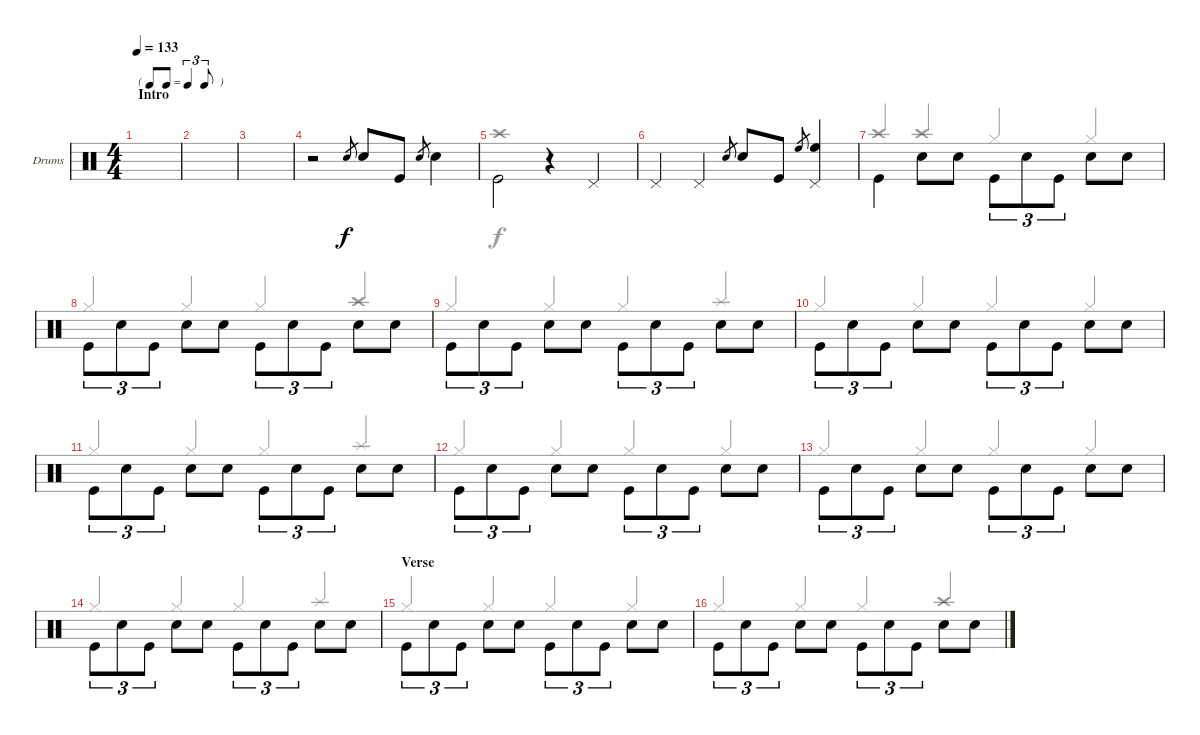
\defaultSystemsLayout 4
\bracketExtendMode groupsimilarinstruments
\firstSystemTrackNameOrientation horizontal
\otherSystemsTrackNameOrientation horizontal
\track ("PETER CRISS" "Drums") {solo instrument percussion}
\staff {score}
\articulation defaults
\voice
\ts (4 4)
\tf triplet8th
\section ("" "Intro")
\tempo 133
\clef neutral
\ks c
|
|
|
r.2 "Snare (hit) 2".8{gr} "Snare (hit) 2".8 "Kick (hit)".8 "Snare (hit) 2".8{gr} "Snare (hit) 2".4 |
"Kick (hit)".2{beam invert} r.4 "Pedal Hi-Hat (hit)".4 |
"Pedal Hi-Hat (hit)".4 "Pedal Hi-Hat (hit)".4 "Snare (hit) 2".8{gr} "Snare (hit) 2".8 "Kick (hit)".8 "High Floor Tom (hit)".8{gr} ("High Floor Tom (hit)" "Pedal Hi-Hat (hit)").4 |
"Kick (hit)".4{beam invert} "Snare (hit) 2".8{beam invert} "Snare (hit) 2".8 "Kick (hit)".8{tu (3 2) beam invert} "Snare (hit) 2".8{tu (3 2)} "Kick (hit)".8{tu (3 2)} "Snare (hit) 2".8{beam invert} "Snare (hit) 2".8 |
"Kick (hit)".8{tu (3 2) beam invert} "Snare (hit) 2".8{tu (3 2)} "Kick (hit)".8{tu (3 2)} "Snare (hit) 2".8{beam invert} "Snare (hit) 2".8 "Kick (hit)".8{tu (3 2) beam invert} "Snare (hit) 2".8{tu (3 2)} "Kick (hit)".8{tu (3 2)} "Snare (hit) 2".8{beam invert} "Snare (hit) 2".8 |
"Kick (hit)".8{tu (3 2) beam invert} "Snare (hit) 2".8{tu (3 2)} "Kick (hit)".8{tu (3 2)} "Snare (hit) 2".8{beam invert} "Snare (hit) 2".8 "Kick (hit)".8{tu (3 2) beam invert} "Snare (hit) 2".8{tu (3 2)} "Kick (hit)".8{tu (3 2)} "Snare (hit) 2".8{beam invert} "Snare (hit) 2".8 |
"Kick (hit)".8{tu (3 2) beam invert} "Snare (hit) 2".8{tu (3 2)} "Kick (hit)".8{tu (3 2)} "Snare (hit) 2".8{beam invert} "Snare (hit) 2".8 "Kick (hit)".8{tu (3 2) beam invert} "Snare (hit) 2".8{tu (3 2)} "Kick (hit)".8{tu (3 2)} "Snare (hit) 2".8{beam invert} "Snare (hit) 2".8 |
"Kick (hit)".8{tu (3 2) beam invert} "Snare (hit) 2".8{tu (3 2)} "Kick (hit)".8{tu (3 2)} "Snare (hit) 2".8{beam invert} "Snare (hit) 2".8 "Kick (hit)".8{tu (3 2) beam invert} "Snare (hit) 2".8{tu (3 2)} "Kick (hit)".8{tu (3 2)} "Snare (hit) 2".8{beam invert} "Snare (hit) 2".8 |
"Kick (hit)".8{tu (3 2) beam invert} "Snare (hit) 2".8{tu (3 2)} "Kick (hit)".8{tu (3 2)} "Snare (hit) 2".8{beam invert} "Snare (hit) 2".8 "Kick (hit)".8{tu (3 2) beam invert} "Snare (hit) 2".8{tu (3 2)} "Kick (hit)".8{tu (3 2)} "Snare (hit) 2".8{beam invert} "Snare (hit) 2".8 |
"Kick (hit)".8{tu (3 2) beam invert} "Snare (hit) 2".8{tu (3 2)} "Kick (hit)".8{tu (3 2)} "Snare (hit) 2".8{beam invert} "Snare (hit) 2".8 "Kick (hit)".8{tu (3 2) beam invert} "Snare (hit) 2".8{tu (3 2)} "Kick (hit)".8{tu (3 2)} "Snare (hit) 2".8{beam invert} "Snare (hit) 2".8 |
"Kick (hit)".8{tu (3 2) beam invert} "Snare (hit) 2".8{tu (3 2)} "Kick (hit)".8{tu (3 2)} "Snare (hit) 2".8{beam invert} "Snare (hit) 2".8 "Kick (hit)".8{tu (3 2) beam invert} "Snare (hit) 2".8{tu (3 2)} "Kick (hit)".8{tu (3 2)} "Snare (hit) 2".8{beam invert} "Snare (hit) 2".8 |
\section ("" "Verse")
"Kick (hit)".8{tu (3 2) beam invert} "Snare (hit) 2".8{tu (3 2)} "Kick (hit)".8{tu (3 2)} "Snare (hit) 2".8{beam invert} "Snare (hit) 2".8 "Kick (hit)".8{tu (3 2) beam invert} "Snare (hit) 2".8{tu (3 2)} "Kick (hit)".8{tu (3 2)} "Snare (hit) 2".8{beam invert} "Snare (hit) 2".8 |
"Kick (hit)".8{tu (3 2) beam invert} "Snare (hit) 2".8{tu (3 2)} "Kick (hit)".8{tu (3 2)} "Snare (hit) 2".8{beam invert} "Snare (hit) 2".8 "Kick (hit)".8{tu (3 2) beam invert} "Snare (hit) 2".8{tu (3 2)} "Kick (hit)".8{tu (3 2)} "Snare (hit) 2".8{beam invert} "Snare (hit) 2".8
\voice
\clef neutral
\ottava regular
\simile none
\ks c
|
|
|
|
"Crash high (hit)".1 |
|
"Crash high (hit)".4{beam invert} "Crash high (hit)".4{beam invert} "Hi-Hat (closed)".4{beam invert} "Hi-Hat (closed)".4{beam invert} |
"Hi-Hat (closed)".4{beam invert} "Hi-Hat (closed)".4{beam invert} "Hi-Hat (closed)".4{beam invert} "Crash high (hit)".4{beam invert} |
"Hi-Hat (closed)".4{beam invert} "Hi-Hat (closed)".4{beam invert} "Hi-Hat (closed)".4{beam invert} "Splash (hit)".4{beam invert} |
"Hi-Hat (closed)".4{beam invert} "Hi-Hat (closed)".4{beam invert} "Hi-Hat (closed)".4{beam invert} "Hi-Hat (closed)".4{beam invert} |
"Hi-Hat (closed)".4{beam invert} "Hi-Hat (closed)".4{beam invert} "Hi-Hat (closed)".4{beam invert} "Splash (hit)".4{beam invert} |
"Hi-Hat (closed)".4{beam invert} "Hi-Hat (closed)".4{beam invert} "Hi-Hat (closed)".4{beam invert} "Hi-Hat (closed)".4{beam invert} |
"Hi-Hat (closed)".4{beam invert} "Hi-Hat (closed)".4{beam invert} "Hi-Hat (closed)".4{beam invert} "Hi-Hat (closed)".4{beam invert} |
"Hi-Hat (closed)".4{beam invert} "Hi-Hat (closed)".4{beam invert} "Hi-Hat (closed)".4{beam invert} "Splash (hit)".4{beam invert} |
"Hi-Hat (closed)".4{beam invert} "Hi-Hat (closed)".4{beam invert} "Hi-Hat (closed)".4{beam invert} "Hi-Hat (closed)".4{beam invert} |
"Hi-Hat (closed)".4{beam invert} "Hi-Hat (closed)".4{beam invert} "Hi-Hat (closed)".4{beam invert} "Crash high (hit)".4{beam invert}
